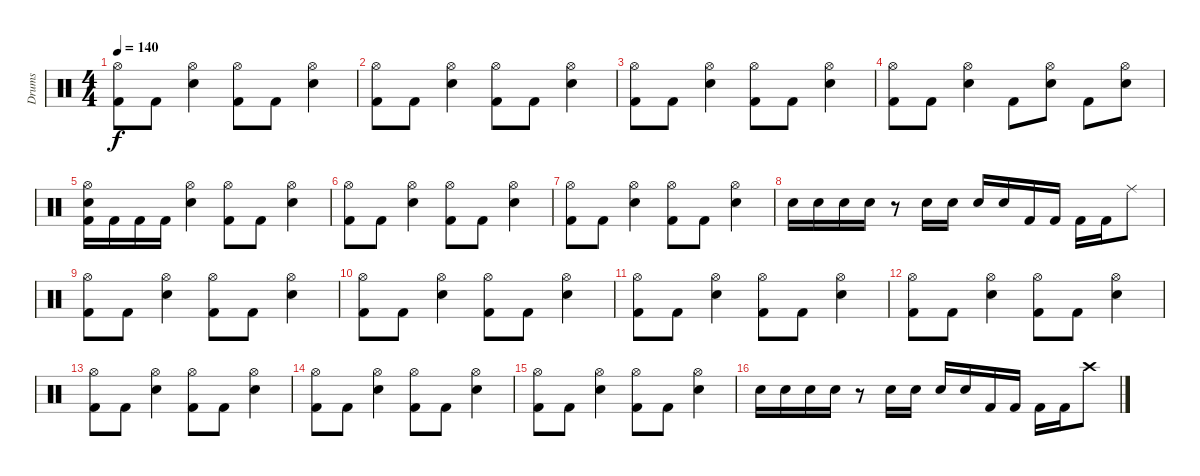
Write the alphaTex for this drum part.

\track ("Drums" "Drums") {instrument percussion}
\staff {score}
\articulation defaults
\ts (4 4)
\tempo 140
\clef neutral
\ks c
("Hi-Hat (open)" "Kick (hit) 2").8{dy f} "Kick (hit) 2".8 ("Hi-Hat (open)" "Electric Snare (hit)").4 ("Hi-Hat (open)" "Kick (hit) 2").8 "Kick (hit) 2".8 ("Hi-Hat (open)" "Electric Snare (hit)").4 |
("Hi-Hat (open)" "Kick (hit) 2").8 "Kick (hit) 2".8 ("Hi-Hat (open)" "Electric Snare (hit)").4 ("Hi-Hat (open)" "Kick (hit) 2").8 "Kick (hit) 2".8 ("Hi-Hat (open)" "Electric Snare (hit)").4 |
("Hi-Hat (open)" "Kick (hit) 2").8 "Kick (hit) 2".8 ("Hi-Hat (open)" "Electric Snare (hit)").4 ("Hi-Hat (open)" "Kick (hit) 2").8 "Kick (hit) 2".8 ("Hi-Hat (open)" "Electric Snare (hit)").4 |
("Hi-Hat (open)" "Kick (hit) 2").8 "Kick (hit) 2".8 ("Hi-Hat (open)" "Electric Snare (hit)").4 "Kick (hit) 2".8 ("Hi-Hat (open)" "Electric Snare (hit)").8 "Kick (hit) 2".8 ("Hi-Hat (open)" "Electric Snare (hit)").8 |
("Hi-Hat (open)" "Electric Snare (hit)" "Kick (hit) 2").16 "Kick (hit) 2".16 "Kick (hit) 2".16 "Kick (hit) 2".16 ("Hi-Hat (open)" "Electric Snare (hit)").4 ("Hi-Hat (open)" "Kick (hit) 2").8 "Kick (hit) 2".8 ("Hi-Hat (open)" "Electric Snare (hit)").4 |
("Hi-Hat (open)" "Kick (hit) 2").8 "Kick (hit) 2".8 ("Hi-Hat (open)" "Electric Snare (hit)").4 ("Hi-Hat (open)" "Kick (hit) 2").8 "Kick (hit) 2".8 ("Hi-Hat (open)" "Electric Snare (hit)").4 |
("Hi-Hat (open)" "Kick (hit) 2").8 "Kick (hit) 2".8 ("Hi-Hat (open)" "Electric Snare (hit)").4 ("Hi-Hat (open)" "Kick (hit) 2").8 "Kick (hit) 2".8 ("Hi-Hat (open)" "Electric Snare (hit)").4 |
"Electric Snare (hit)".16 "Electric Snare (hit)".16 "Electric Snare (hit)".16 "Electric Snare (hit)".16 r.8 "Electric Snare (hit)".16 "Electric Snare (hit)".16 "Electric Snare (hit)".16 "Electric Snare (hit)".16 "Kick (hit) 2".16 "Kick (hit) 2".16 "Kick (hit) 2".16 "Kick (hit) 2".16 "Ride (middle)".8 |
("Hi-Hat (open)" "Kick (hit) 2").8 "Kick (hit) 2".8 ("Hi-Hat (open)" "Electric Snare (hit)").4 ("Hi-Hat (open)" "Kick (hit) 2").8 "Kick (hit) 2".8 ("Hi-Hat (open)" "Electric Snare (hit)").4 |
("Hi-Hat (open)" "Kick (hit) 2").8 "Kick (hit) 2".8 ("Hi-Hat (open)" "Electric Snare (hit)").4 ("Hi-Hat (open)" "Kick (hit) 2").8 "Kick (hit) 2".8 ("Hi-Hat (open)" "Electric Snare (hit)").4 |
("Hi-Hat (open)" "Kick (hit) 2").8 "Kick (hit) 2".8 ("Hi-Hat (open)" "Electric Snare (hit)").4 ("Hi-Hat (open)" "Kick (hit) 2").8 "Kick (hit) 2".8 ("Hi-Hat (open)" "Electric Snare (hit)").4 |
("Hi-Hat (open)" "Kick (hit) 2").8 "Kick (hit) 2".8 ("Hi-Hat (open)" "Electric Snare (hit)").4 ("Hi-Hat (open)" "Kick (hit) 2").8 "Kick (hit) 2".8 ("Hi-Hat (open)" "Electric Snare (hit)").4 |
("Hi-Hat (open)" "Kick (hit) 2").8 "Kick (hit) 2".8 ("Hi-Hat (open)" "Electric Snare (hit)").4 ("Hi-Hat (open)" "Kick (hit) 2").8 "Kick (hit) 2".8 ("Hi-Hat (open)" "Electric Snare (hit)").4 |
("Hi-Hat (open)" "Kick (hit) 2").8 "Kick (hit) 2".8 ("Hi-Hat (open)" "Electric Snare (hit)").4 ("Hi-Hat (open)" "Kick (hit) 2").8 "Kick (hit) 2".8 ("Hi-Hat (open)" "Electric Snare (hit)").4 |
("Hi-Hat (open)" "Kick (hit) 2").8 "Kick (hit) 2".8 ("Hi-Hat (open)" "Electric Snare (hit)").4 ("Hi-Hat (open)" "Kick (hit) 2").8 "Kick (hit) 2".8 ("Hi-Hat (open)" "Electric Snare (hit)").4 |
"Electric Snare (hit)".16 "Electric Snare (hit)".16 "Electric Snare (hit)".16 "Electric Snare (hit)".16 r.8 "Electric Snare (hit)".16 "Electric Snare (hit)".16 "Electric Snare (hit)".16 "Electric Snare (hit)".16 "Kick (hit) 2".16 "Kick (hit) 2".16 "Kick (hit) 2".16 "Kick (hit) 2".16 "Crash high (hit)".8
